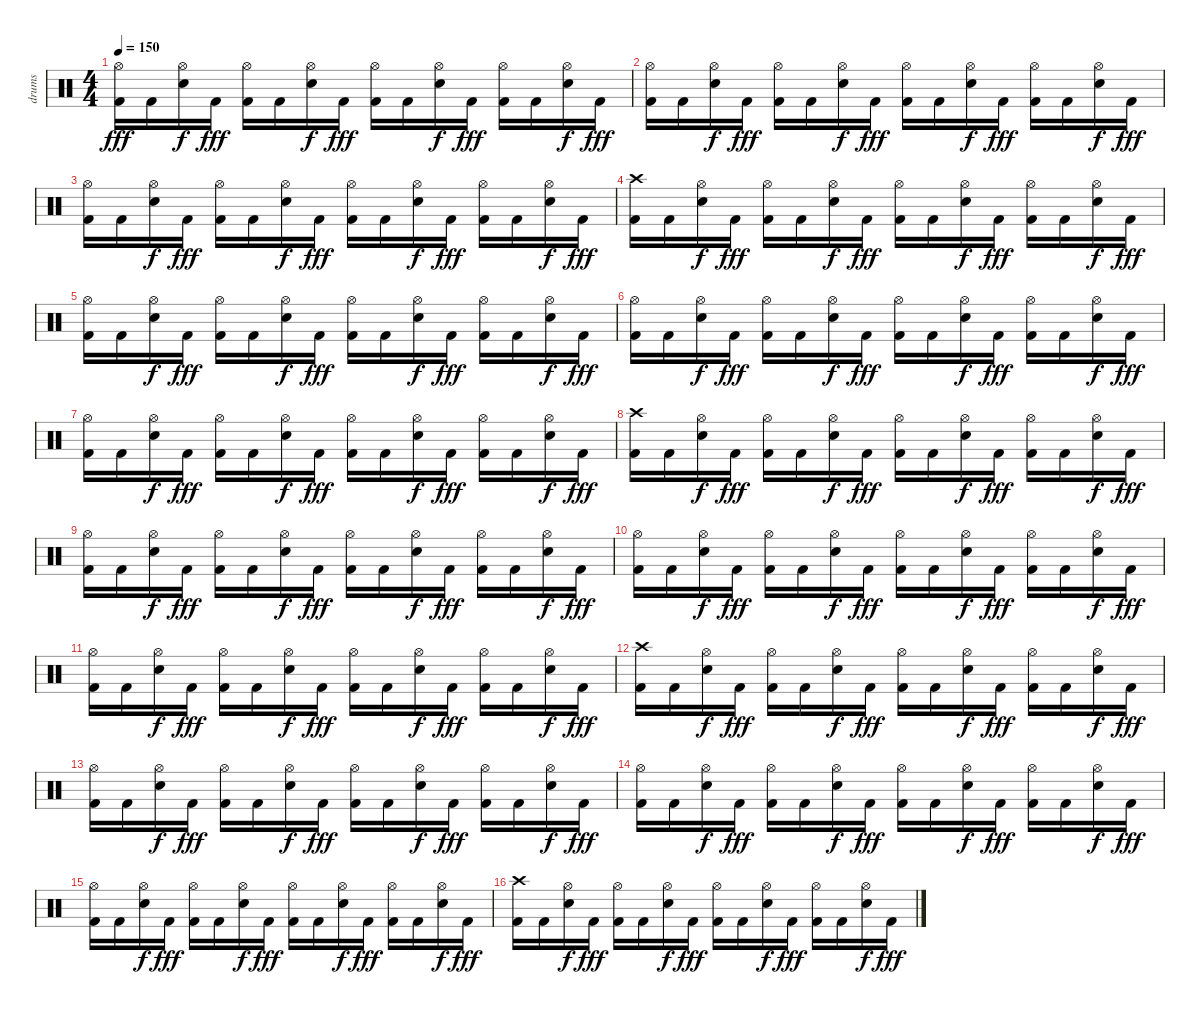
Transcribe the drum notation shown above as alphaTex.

\track ("drums" "drums") {instrument percussion}
\staff {score}
\articulation defaults
\ts (4 4)
\tempo 150
\clef neutral
\ks c
("Hi-Hat (open)" "Kick (hit) 2").16{dy fff} "Kick (hit) 2".16 ("Hi-Hat (open)" "Snare (hit) 2").16{dy f} "Kick (hit) 2".16{dy fff} ("Hi-Hat (open)" "Kick (hit) 2").16 "Kick (hit) 2".16 ("Hi-Hat (open)" "Snare (hit) 2").16{dy f} "Kick (hit) 2".16{dy fff} ("Hi-Hat (open)" "Kick (hit) 2").16 "Kick (hit) 2".16 ("Hi-Hat (open)" "Snare (hit) 2").16{dy f} "Kick (hit) 2".16{dy fff} ("Hi-Hat (open)" "Kick (hit) 2").16 "Kick (hit) 2".16 ("Hi-Hat (open)" "Snare (hit) 2").16{dy f} "Kick (hit) 2".16{dy fff} |
("Hi-Hat (open)" "Kick (hit) 2").16 "Kick (hit) 2".16 ("Hi-Hat (open)" "Snare (hit) 2").16{dy f} "Kick (hit) 2".16{dy fff} ("Hi-Hat (open)" "Kick (hit) 2").16 "Kick (hit) 2".16 ("Hi-Hat (open)" "Snare (hit) 2").16{dy f} "Kick (hit) 2".16{dy fff} ("Hi-Hat (open)" "Kick (hit) 2").16 "Kick (hit) 2".16 ("Hi-Hat (open)" "Snare (hit) 2").16{dy f} "Kick (hit) 2".16{dy fff} ("Hi-Hat (open)" "Kick (hit) 2").16 "Kick (hit) 2".16 ("Hi-Hat (open)" "Snare (hit) 2").16{dy f} "Kick (hit) 2".16{dy fff} |
("Hi-Hat (open)" "Kick (hit) 2").16 "Kick (hit) 2".16 ("Hi-Hat (open)" "Snare (hit) 2").16{dy f} "Kick (hit) 2".16{dy fff} ("Hi-Hat (open)" "Kick (hit) 2").16 "Kick (hit) 2".16 ("Hi-Hat (open)" "Snare (hit) 2").16{dy f} "Kick (hit) 2".16{dy fff} ("Hi-Hat (open)" "Kick (hit) 2").16 "Kick (hit) 2".16 ("Hi-Hat (open)" "Snare (hit) 2").16{dy f} "Kick (hit) 2".16{dy fff} ("Hi-Hat (open)" "Kick (hit) 2").16 "Kick (hit) 2".16 ("Hi-Hat (open)" "Snare (hit) 2").16{dy f} "Kick (hit) 2".16{dy fff} |
("Crash high (hit)" "Kick (hit) 2").16 "Kick (hit) 2".16 ("Hi-Hat (open)" "Snare (hit) 2").16{dy f} "Kick (hit) 2".16{dy fff} ("Hi-Hat (open)" "Kick (hit) 2").16 "Kick (hit) 2".16 ("Hi-Hat (open)" "Snare (hit) 2").16{dy f} "Kick (hit) 2".16{dy fff} ("Hi-Hat (open)" "Kick (hit) 2").16 "Kick (hit) 2".16 ("Hi-Hat (open)" "Snare (hit) 2").16{dy f} "Kick (hit) 2".16{dy fff} ("Hi-Hat (open)" "Kick (hit) 2").16 "Kick (hit) 2".16 ("Hi-Hat (open)" "Snare (hit) 2").16{dy f} "Kick (hit) 2".16{dy fff} |
("Hi-Hat (open)" "Kick (hit) 2").16 "Kick (hit) 2".16 ("Hi-Hat (open)" "Snare (hit) 2").16{dy f} "Kick (hit) 2".16{dy fff} ("Hi-Hat (open)" "Kick (hit) 2").16 "Kick (hit) 2".16 ("Hi-Hat (open)" "Snare (hit) 2").16{dy f} "Kick (hit) 2".16{dy fff} ("Hi-Hat (open)" "Kick (hit) 2").16 "Kick (hit) 2".16 ("Hi-Hat (open)" "Snare (hit) 2").16{dy f} "Kick (hit) 2".16{dy fff} ("Hi-Hat (open)" "Kick (hit) 2").16 "Kick (hit) 2".16 ("Hi-Hat (open)" "Snare (hit) 2").16{dy f} "Kick (hit) 2".16{dy fff} |
("Hi-Hat (open)" "Kick (hit) 2").16 "Kick (hit) 2".16 ("Hi-Hat (open)" "Snare (hit) 2").16{dy f} "Kick (hit) 2".16{dy fff} ("Hi-Hat (open)" "Kick (hit) 2").16 "Kick (hit) 2".16 ("Hi-Hat (open)" "Snare (hit) 2").16{dy f} "Kick (hit) 2".16{dy fff} ("Hi-Hat (open)" "Kick (hit) 2").16 "Kick (hit) 2".16 ("Hi-Hat (open)" "Snare (hit) 2").16{dy f} "Kick (hit) 2".16{dy fff} ("Hi-Hat (open)" "Kick (hit) 2").16 "Kick (hit) 2".16 ("Hi-Hat (open)" "Snare (hit) 2").16{dy f} "Kick (hit) 2".16{dy fff} |
("Hi-Hat (open)" "Kick (hit) 2").16 "Kick (hit) 2".16 ("Hi-Hat (open)" "Snare (hit) 2").16{dy f} "Kick (hit) 2".16{dy fff} ("Hi-Hat (open)" "Kick (hit) 2").16 "Kick (hit) 2".16 ("Hi-Hat (open)" "Snare (hit) 2").16{dy f} "Kick (hit) 2".16{dy fff} ("Hi-Hat (open)" "Kick (hit) 2").16 "Kick (hit) 2".16 ("Hi-Hat (open)" "Snare (hit) 2").16{dy f} "Kick (hit) 2".16{dy fff} ("Hi-Hat (open)" "Kick (hit) 2").16 "Kick (hit) 2".16 ("Hi-Hat (open)" "Snare (hit) 2").16{dy f} "Kick (hit) 2".16{dy fff} |
("Crash high (hit)" "Kick (hit) 2").16 "Kick (hit) 2".16 ("Hi-Hat (open)" "Snare (hit) 2").16{dy f} "Kick (hit) 2".16{dy fff} ("Hi-Hat (open)" "Kick (hit) 2").16 "Kick (hit) 2".16 ("Hi-Hat (open)" "Snare (hit) 2").16{dy f} "Kick (hit) 2".16{dy fff} ("Hi-Hat (open)" "Kick (hit) 2").16 "Kick (hit) 2".16 ("Hi-Hat (open)" "Snare (hit) 2").16{dy f} "Kick (hit) 2".16{dy fff} ("Hi-Hat (open)" "Kick (hit) 2").16 "Kick (hit) 2".16 ("Hi-Hat (open)" "Snare (hit) 2").16{dy f} "Kick (hit) 2".16{dy fff} |
("Hi-Hat (open)" "Kick (hit) 2").16 "Kick (hit) 2".16 ("Hi-Hat (open)" "Snare (hit) 2").16{dy f} "Kick (hit) 2".16{dy fff} ("Hi-Hat (open)" "Kick (hit) 2").16 "Kick (hit) 2".16 ("Hi-Hat (open)" "Snare (hit) 2").16{dy f} "Kick (hit) 2".16{dy fff} ("Hi-Hat (open)" "Kick (hit) 2").16 "Kick (hit) 2".16 ("Hi-Hat (open)" "Snare (hit) 2").16{dy f} "Kick (hit) 2".16{dy fff} ("Hi-Hat (open)" "Kick (hit) 2").16 "Kick (hit) 2".16 ("Hi-Hat (open)" "Snare (hit) 2").16{dy f} "Kick (hit) 2".16{dy fff} |
("Hi-Hat (open)" "Kick (hit) 2").16 "Kick (hit) 2".16 ("Hi-Hat (open)" "Snare (hit) 2").16{dy f} "Kick (hit) 2".16{dy fff} ("Hi-Hat (open)" "Kick (hit) 2").16 "Kick (hit) 2".16 ("Hi-Hat (open)" "Snare (hit) 2").16{dy f} "Kick (hit) 2".16{dy fff} ("Hi-Hat (open)" "Kick (hit) 2").16 "Kick (hit) 2".16 ("Hi-Hat (open)" "Snare (hit) 2").16{dy f} "Kick (hit) 2".16{dy fff} ("Hi-Hat (open)" "Kick (hit) 2").16 "Kick (hit) 2".16 ("Hi-Hat (open)" "Snare (hit) 2").16{dy f} "Kick (hit) 2".16{dy fff} |
("Hi-Hat (open)" "Kick (hit) 2").16 "Kick (hit) 2".16 ("Hi-Hat (open)" "Snare (hit) 2").16{dy f} "Kick (hit) 2".16{dy fff} ("Hi-Hat (open)" "Kick (hit) 2").16 "Kick (hit) 2".16 ("Hi-Hat (open)" "Snare (hit) 2").16{dy f} "Kick (hit) 2".16{dy fff} ("Hi-Hat (open)" "Kick (hit) 2").16 "Kick (hit) 2".16 ("Hi-Hat (open)" "Snare (hit) 2").16{dy f} "Kick (hit) 2".16{dy fff} ("Hi-Hat (open)" "Kick (hit) 2").16 "Kick (hit) 2".16 ("Hi-Hat (open)" "Snare (hit) 2").16{dy f} "Kick (hit) 2".16{dy fff} |
("Crash high (hit)" "Kick (hit) 2").16 "Kick (hit) 2".16 ("Hi-Hat (open)" "Snare (hit) 2").16{dy f} "Kick (hit) 2".16{dy fff} ("Hi-Hat (open)" "Kick (hit) 2").16 "Kick (hit) 2".16 ("Hi-Hat (open)" "Snare (hit) 2").16{dy f} "Kick (hit) 2".16{dy fff} ("Hi-Hat (open)" "Kick (hit) 2").16 "Kick (hit) 2".16 ("Hi-Hat (open)" "Snare (hit) 2").16{dy f} "Kick (hit) 2".16{dy fff} ("Hi-Hat (open)" "Kick (hit) 2").16 "Kick (hit) 2".16 ("Hi-Hat (open)" "Snare (hit) 2").16{dy f} "Kick (hit) 2".16{dy fff} |
("Hi-Hat (open)" "Kick (hit) 2").16 "Kick (hit) 2".16 ("Hi-Hat (open)" "Snare (hit) 2").16{dy f} "Kick (hit) 2".16{dy fff} ("Hi-Hat (open)" "Kick (hit) 2").16 "Kick (hit) 2".16 ("Hi-Hat (open)" "Snare (hit) 2").16{dy f} "Kick (hit) 2".16{dy fff} ("Hi-Hat (open)" "Kick (hit) 2").16 "Kick (hit) 2".16 ("Hi-Hat (open)" "Snare (hit) 2").16{dy f} "Kick (hit) 2".16{dy fff} ("Hi-Hat (open)" "Kick (hit) 2").16 "Kick (hit) 2".16 ("Hi-Hat (open)" "Snare (hit) 2").16{dy f} "Kick (hit) 2".16{dy fff} |
("Hi-Hat (open)" "Kick (hit) 2").16 "Kick (hit) 2".16 ("Hi-Hat (open)" "Snare (hit) 2").16{dy f} "Kick (hit) 2".16{dy fff} ("Hi-Hat (open)" "Kick (hit) 2").16 "Kick (hit) 2".16 ("Hi-Hat (open)" "Snare (hit) 2").16{dy f} "Kick (hit) 2".16{dy fff} ("Hi-Hat (open)" "Kick (hit) 2").16 "Kick (hit) 2".16 ("Hi-Hat (open)" "Snare (hit) 2").16{dy f} "Kick (hit) 2".16{dy fff} ("Hi-Hat (open)" "Kick (hit) 2").16 "Kick (hit) 2".16 ("Hi-Hat (open)" "Snare (hit) 2").16{dy f} "Kick (hit) 2".16{dy fff} |
("Hi-Hat (open)" "Kick (hit) 2").16 "Kick (hit) 2".16 ("Hi-Hat (open)" "Snare (hit) 2").16{dy f} "Kick (hit) 2".16{dy fff} ("Hi-Hat (open)" "Kick (hit) 2").16 "Kick (hit) 2".16 ("Hi-Hat (open)" "Snare (hit) 2").16{dy f} "Kick (hit) 2".16{dy fff} ("Hi-Hat (open)" "Kick (hit) 2").16 "Kick (hit) 2".16 ("Hi-Hat (open)" "Snare (hit) 2").16{dy f} "Kick (hit) 2".16{dy fff} ("Hi-Hat (open)" "Kick (hit) 2").16 "Kick (hit) 2".16 ("Hi-Hat (open)" "Snare (hit) 2").16{dy f} "Kick (hit) 2".16{dy fff} |
("Crash high (hit)" "Kick (hit) 2").16 "Kick (hit) 2".16 ("Hi-Hat (open)" "Snare (hit) 2").16{dy f} "Kick (hit) 2".16{dy fff} ("Hi-Hat (open)" "Kick (hit) 2").16 "Kick (hit) 2".16 ("Hi-Hat (open)" "Snare (hit) 2").16{dy f} "Kick (hit) 2".16{dy fff} ("Hi-Hat (open)" "Kick (hit) 2").16 "Kick (hit) 2".16 ("Hi-Hat (open)" "Snare (hit) 2").16{dy f} "Kick (hit) 2".16{dy fff} ("Hi-Hat (open)" "Kick (hit) 2").16 "Kick (hit) 2".16 ("Hi-Hat (open)" "Snare (hit) 2").16{dy f} "Kick (hit) 2".16{dy fff}
